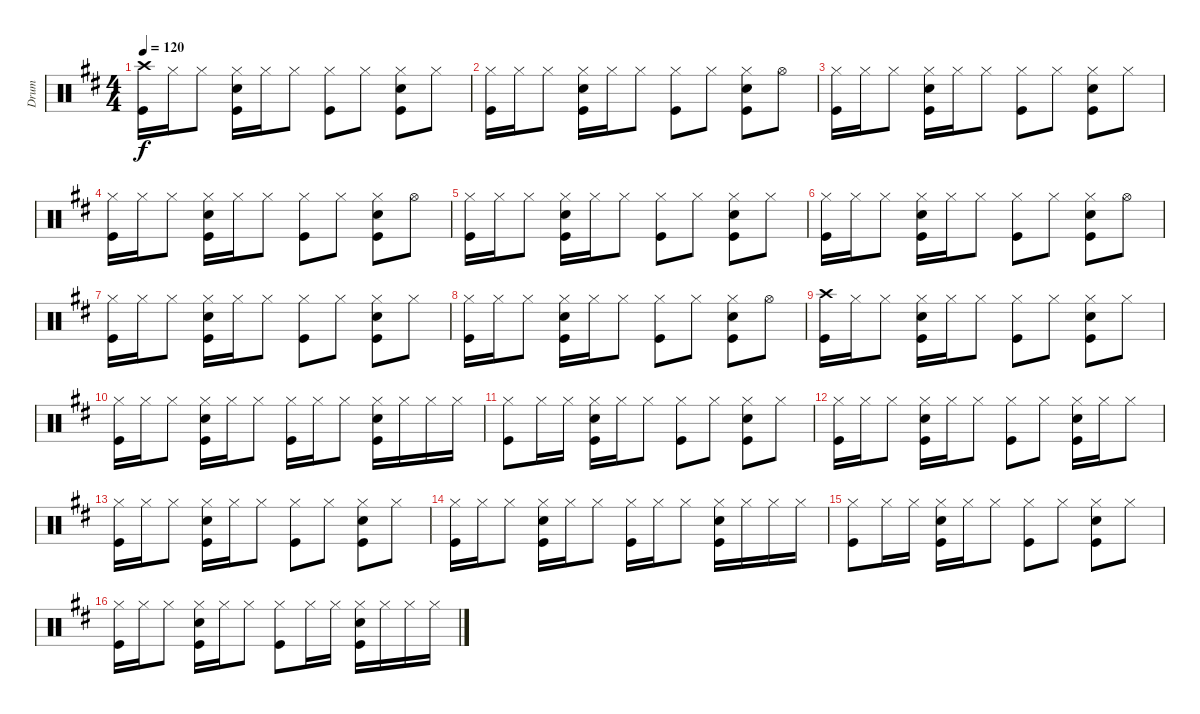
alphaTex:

\track ("Drum" "Drum") {instrument percussion}
\staff {score}
\articulation defaults
\ts (4 4)
\tempo 120
\clef neutral
\ks d
("Crash high (hit)" "Kick (hit)").16{dy f} "Hi-Hat (closed)".16 "Hi-Hat (closed)".8 ("Hi-Hat (closed)" "Snare (hit) 2" "Kick (hit)").16 "Hi-Hat (closed)".16 "Hi-Hat (closed)".8 ("Hi-Hat (closed)" "Kick (hit)").8 "Hi-Hat (closed)".8 ("Hi-Hat (closed)" "Snare (hit) 2" "Kick (hit)").8 "Hi-Hat (closed)".8 |
("Hi-Hat (closed)" "Kick (hit)").16 "Hi-Hat (closed)".16 "Hi-Hat (closed)".8 ("Hi-Hat (closed)" "Snare (hit) 2" "Kick (hit)").16 "Hi-Hat (closed)".16 "Hi-Hat (closed)".8 ("Hi-Hat (closed)" "Kick (hit)").8 "Hi-Hat (closed)".8 ("Hi-Hat (closed)" "Snare (hit) 2" "Kick (hit)").8 "Hi-Hat (open)".8 |
("Hi-Hat (closed)" "Kick (hit)").16 "Hi-Hat (closed)".16 "Hi-Hat (closed)".8 ("Hi-Hat (closed)" "Snare (hit) 2" "Kick (hit)").16 "Hi-Hat (closed)".16 "Hi-Hat (closed)".8 ("Hi-Hat (closed)" "Kick (hit)").8 "Hi-Hat (closed)".8 ("Hi-Hat (closed)" "Snare (hit) 2" "Kick (hit)").8 "Hi-Hat (closed)".8 |
("Hi-Hat (closed)" "Kick (hit)").16 "Hi-Hat (closed)".16 "Hi-Hat (closed)".8 ("Hi-Hat (closed)" "Snare (hit) 2" "Kick (hit)").16 "Hi-Hat (closed)".16 "Hi-Hat (closed)".8 ("Hi-Hat (closed)" "Kick (hit)").8 "Hi-Hat (closed)".8 ("Hi-Hat (closed)" "Snare (hit) 2" "Kick (hit)").8 "Hi-Hat (open)".8 |
("Hi-Hat (closed)" "Kick (hit)").16 "Hi-Hat (closed)".16 "Hi-Hat (closed)".8 ("Hi-Hat (closed)" "Snare (hit) 2" "Kick (hit)").16 "Hi-Hat (closed)".16 "Hi-Hat (closed)".8 ("Hi-Hat (closed)" "Kick (hit)").8 "Hi-Hat (closed)".8 ("Hi-Hat (closed)" "Snare (hit) 2" "Kick (hit)").8 "Hi-Hat (closed)".8 |
("Hi-Hat (closed)" "Kick (hit)").16 "Hi-Hat (closed)".16 "Hi-Hat (closed)".8 ("Hi-Hat (closed)" "Snare (hit) 2" "Kick (hit)").16 "Hi-Hat (closed)".16 "Hi-Hat (closed)".8 ("Hi-Hat (closed)" "Kick (hit)").8 "Hi-Hat (closed)".8 ("Hi-Hat (closed)" "Snare (hit) 2" "Kick (hit)").8 "Hi-Hat (open)".8 |
("Hi-Hat (closed)" "Kick (hit)").16 "Hi-Hat (closed)".16 "Hi-Hat (closed)".8 ("Hi-Hat (closed)" "Snare (hit) 2" "Kick (hit)").16 "Hi-Hat (closed)".16 "Hi-Hat (closed)".8 ("Hi-Hat (closed)" "Kick (hit)").8 "Hi-Hat (closed)".8 ("Hi-Hat (closed)" "Snare (hit) 2" "Kick (hit)").8 "Hi-Hat (closed)".8 |
("Hi-Hat (closed)" "Kick (hit)").16 "Hi-Hat (closed)".16 "Hi-Hat (closed)".8 ("Hi-Hat (closed)" "Snare (hit) 2" "Kick (hit)").16 "Hi-Hat (closed)".16 "Hi-Hat (closed)".8 ("Hi-Hat (closed)" "Kick (hit)").8 "Hi-Hat (closed)".8 ("Hi-Hat (closed)" "Snare (hit) 2" "Kick (hit)").8 "Hi-Hat (open)".8 |
("Crash high (hit)" "Kick (hit)").16 "Hi-Hat (closed)".16 "Hi-Hat (closed)".8 ("Hi-Hat (closed)" "Snare (hit) 2" "Kick (hit)").16 "Hi-Hat (closed)".16 "Hi-Hat (closed)".8 ("Hi-Hat (closed)" "Kick (hit)").8 "Hi-Hat (closed)".8 ("Hi-Hat (closed)" "Snare (hit) 2" "Kick (hit)").8 "Hi-Hat (closed)".8 |
("Hi-Hat (closed)" "Kick (hit)").16 "Hi-Hat (closed)".16 "Hi-Hat (closed)".8 ("Hi-Hat (closed)" "Snare (hit) 2" "Kick (hit)").16 "Hi-Hat (closed)".16 "Hi-Hat (closed)".8 ("Hi-Hat (closed)" "Kick (hit)").16 "Hi-Hat (closed)".16 "Hi-Hat (closed)".8 ("Hi-Hat (closed)" "Snare (hit) 2" "Kick (hit)").16 "Hi-Hat (closed)".16 "Hi-Hat (closed)".16 "Hi-Hat (closed)".16 |
("Hi-Hat (closed)" "Kick (hit)").8 "Hi-Hat (closed)".16 "Hi-Hat (closed)".16 ("Hi-Hat (closed)" "Snare (hit) 2" "Kick (hit)").16 "Hi-Hat (closed)".16 "Hi-Hat (closed)".8 ("Hi-Hat (closed)" "Kick (hit)").8 "Hi-Hat (closed)".8 ("Hi-Hat (closed)" "Snare (hit) 2" "Kick (hit)").8 "Hi-Hat (closed)".8 |
("Hi-Hat (closed)" "Kick (hit)").16 "Hi-Hat (closed)".16 "Hi-Hat (closed)".8 ("Hi-Hat (closed)" "Snare (hit) 2" "Kick (hit)").16 "Hi-Hat (closed)".16 "Hi-Hat (closed)".8 ("Hi-Hat (closed)" "Kick (hit)").8 "Hi-Hat (closed)".8 ("Hi-Hat (closed)" "Snare (hit) 2" "Kick (hit)").16 "Hi-Hat (closed)".16 "Hi-Hat (closed)".8 |
("Hi-Hat (closed)" "Kick (hit)").16 "Hi-Hat (closed)".16 "Hi-Hat (closed)".8 ("Hi-Hat (closed)" "Snare (hit) 2" "Kick (hit)").16 "Hi-Hat (closed)".16 "Hi-Hat (closed)".8 ("Hi-Hat (closed)" "Kick (hit)").8 "Hi-Hat (closed)".8 ("Hi-Hat (closed)" "Snare (hit) 2" "Kick (hit)").8 "Hi-Hat (closed)".8 |
("Hi-Hat (closed)" "Kick (hit)").16 "Hi-Hat (closed)".16 "Hi-Hat (closed)".8 ("Hi-Hat (closed)" "Snare (hit) 2" "Kick (hit)").16 "Hi-Hat (closed)".16 "Hi-Hat (closed)".8 ("Hi-Hat (closed)" "Kick (hit)").16 "Hi-Hat (closed)".16 "Hi-Hat (closed)".8 ("Hi-Hat (closed)" "Snare (hit) 2" "Kick (hit)").16 "Hi-Hat (closed)".16 "Hi-Hat (closed)".16 "Hi-Hat (closed)".16 |
("Hi-Hat (closed)" "Kick (hit)").8 "Hi-Hat (closed)".16 "Hi-Hat (closed)".16 ("Hi-Hat (closed)" "Snare (hit) 2" "Kick (hit)").16 "Hi-Hat (closed)".16 "Hi-Hat (closed)".8 ("Hi-Hat (closed)" "Kick (hit)").8 "Hi-Hat (closed)".8 ("Hi-Hat (closed)" "Snare (hit) 2" "Kick (hit)").8 "Hi-Hat (closed)".8 |
("Hi-Hat (closed)" "Kick (hit)").16 "Hi-Hat (closed)".16 "Hi-Hat (closed)".8 ("Hi-Hat (closed)" "Snare (hit) 2" "Kick (hit)").16 "Hi-Hat (closed)".16 "Hi-Hat (closed)".8 ("Hi-Hat (closed)" "Kick (hit)").8 "Hi-Hat (closed)".16 "Hi-Hat (closed)".16 ("Hi-Hat (closed)" "Snare (hit) 2" "Kick (hit)").16 "Hi-Hat (closed)".16 "Hi-Hat (closed)".16 "Hi-Hat (closed)".16
